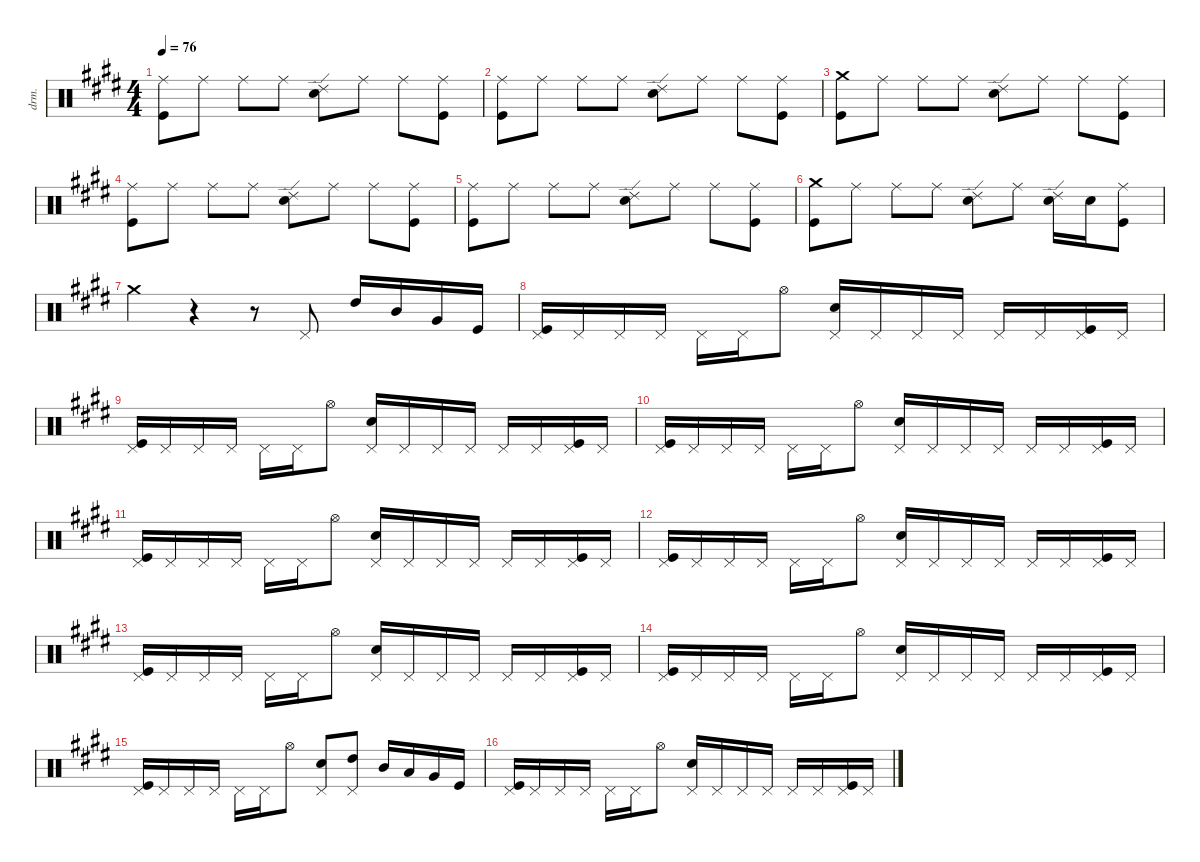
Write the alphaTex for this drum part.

\defaultSystemsLayout 4
\hideDynamics
\bracketExtendMode nobrackets
\otherSystemsTrackNameOrientation horizontal
\track ("Drums" "drm.") {instrument percussion}
\staff {score}
\articulation defaults
\ts (4 4)
\tempo 76
\clef neutral
\ks c#minor
("Ride (middle)"{acc forcenatural} "Kick (hit)"{acc forcenatural}).8{dy f} "Ride (middle)"{acc forcenatural}.8 "Ride (middle)"{acc forcenatural}.8 "Ride (middle)"{acc forcenatural}.8 ("Snare (hit) 2"{acc forcenatural} "Ride (edge) 2"{acc forcenatural}).8 "Ride (middle)"{acc forcenatural}.8 "Ride (middle)"{acc forcenatural}.8 ("Kick (hit)"{acc forcenatural} "Ride (middle)"{acc forcenatural}).8 |
("Ride (middle)"{acc forcenatural} "Kick (hit)"{acc forcenatural}).8 "Ride (middle)"{acc forcenatural}.8 "Ride (middle)"{acc forcenatural}.8 "Ride (middle)"{acc forcenatural}.8 ("Snare (hit) 2"{acc forcenatural} "Ride (edge) 2"{acc forcenatural}).8 "Ride (middle)"{acc forcenatural}.8 "Ride (middle)"{acc forcenatural}.8 ("Kick (hit)"{acc forcenatural} "Ride (middle)"{acc forcenatural}).8 |
("Crash medium (hit)"{acc forcenatural} "Kick (hit)"{acc forcenatural}).8 "Ride (middle)"{acc forcenatural}.8 "Ride (middle)"{acc forcenatural}.8 "Ride (middle)"{acc forcenatural}.8 ("Snare (hit) 2"{acc forcenatural} "Ride (edge) 2"{acc forcenatural}).8 "Ride (middle)"{acc forcenatural}.8 "Ride (middle)"{acc forcenatural}.8 ("Kick (hit)"{acc forcenatural} "Ride (middle)"{acc forcenatural}).8 |
("Ride (middle)"{acc forcenatural} "Kick (hit)"{acc forcenatural}).8 "Ride (middle)"{acc forcenatural}.8 "Ride (middle)"{acc forcenatural}.8 "Ride (middle)"{acc forcenatural}.8 ("Snare (hit) 2"{acc forcenatural} "Ride (edge) 2"{acc forcenatural}).8 "Ride (middle)"{acc forcenatural}.8 "Ride (middle)"{acc forcenatural}.8 ("Kick (hit)"{acc forcenatural} "Ride (middle)"{acc forcenatural}).8 |
("Ride (middle)"{acc forcenatural} "Kick (hit)"{acc forcenatural}).8 "Ride (middle)"{acc forcenatural}.8 "Ride (middle)"{acc forcenatural}.8 "Ride (middle)"{acc forcenatural}.8 ("Snare (hit) 2"{acc forcenatural} "Ride (edge) 2"{acc forcenatural}).8 "Ride (middle)"{acc forcenatural}.8 "Ride (middle)"{acc forcenatural}.8 ("Kick (hit)"{acc forcenatural} "Ride (middle)"{acc forcenatural}).8 |
("Crash medium (hit)"{acc forcenatural} "Kick (hit)"{acc forcenatural}).8 "Ride (middle)"{acc forcenatural}.8 "Ride (middle)"{acc forcenatural}.8 "Ride (middle)"{acc forcenatural}.8 ("Snare (hit) 2"{acc forcenatural} "Ride (edge) 2"{acc forcenatural}).8 "Ride (middle)"{acc forcenatural}.8 ("Snare (hit) 2"{acc forcenatural} "Ride (edge) 2"{acc forcenatural}).16 "Snare (hit) 2"{acc forcenatural}.16 ("Kick (hit)"{acc forcenatural} "Ride (middle)"{acc forcenatural}).8 |
"Crash medium (hit)"{acc forcenatural}.4 r.4 r.8 "Pedal Hi-Hat (hit)"{acc forcenatural}.8 "High Tom (hit)"{acc forcenatural}.16 "Mid Tom (hit)"{acc forcenatural}.16 "Very Low Tom (hit)"{acc forcenatural}.16 "Kick (hit)"{acc forcenatural}.16 |
("Pedal Hi-Hat (hit)"{acc forcenatural} "Kick (hit)"{acc forcenatural}).16 "Pedal Hi-Hat (hit)"{acc forcenatural}.16 "Pedal Hi-Hat (hit)"{acc forcenatural}.16 "Pedal Hi-Hat (hit)"{acc forcenatural}.16 "Pedal Hi-Hat (hit)"{acc forcenatural}.16 "Pedal Hi-Hat (hit)"{acc forcenatural}.16 "Hi-Hat (open)"{acc forcenatural}.8 ("Snare (hit) 2"{acc forcenatural} "Pedal Hi-Hat (hit)"{acc forcenatural}).16 "Pedal Hi-Hat (hit)"{acc forcenatural}.16 "Pedal Hi-Hat (hit)"{acc forcenatural}.16 "Pedal Hi-Hat (hit)"{acc forcenatural}.16 "Pedal Hi-Hat (hit)"{acc forcenatural}.16 "Pedal Hi-Hat (hit)"{acc forcenatural}.16 ("Pedal Hi-Hat (hit)"{acc forcenatural} "Kick (hit)"{acc forcenatural}).16 "Pedal Hi-Hat (hit)"{acc forcenatural}.16 |
("Pedal Hi-Hat (hit)"{acc forcenatural} "Kick (hit)"{acc forcenatural}).16 "Pedal Hi-Hat (hit)"{acc forcenatural}.16 "Pedal Hi-Hat (hit)"{acc forcenatural}.16 "Pedal Hi-Hat (hit)"{acc forcenatural}.16 "Pedal Hi-Hat (hit)"{acc forcenatural}.16 "Pedal Hi-Hat (hit)"{acc forcenatural}.16 "Hi-Hat (open)"{acc forcenatural}.8 ("Snare (hit) 2"{acc forcenatural} "Pedal Hi-Hat (hit)"{acc forcenatural}).16 "Pedal Hi-Hat (hit)"{acc forcenatural}.16 "Pedal Hi-Hat (hit)"{acc forcenatural}.16 "Pedal Hi-Hat (hit)"{acc forcenatural}.16 "Pedal Hi-Hat (hit)"{acc forcenatural}.16 "Pedal Hi-Hat (hit)"{acc forcenatural}.16 ("Pedal Hi-Hat (hit)"{acc forcenatural} "Kick (hit)"{acc forcenatural}).16 "Pedal Hi-Hat (hit)"{acc forcenatural}.16 |
("Pedal Hi-Hat (hit)"{acc forcenatural} "Kick (hit)"{acc forcenatural}).16 "Pedal Hi-Hat (hit)"{acc forcenatural}.16 "Pedal Hi-Hat (hit)"{acc forcenatural}.16 "Pedal Hi-Hat (hit)"{acc forcenatural}.16 "Pedal Hi-Hat (hit)"{acc forcenatural}.16 "Pedal Hi-Hat (hit)"{acc forcenatural}.16 "Hi-Hat (open)"{acc forcenatural}.8 ("Snare (hit) 2"{acc forcenatural} "Pedal Hi-Hat (hit)"{acc forcenatural}).16 "Pedal Hi-Hat (hit)"{acc forcenatural}.16 "Pedal Hi-Hat (hit)"{acc forcenatural}.16 "Pedal Hi-Hat (hit)"{acc forcenatural}.16 "Pedal Hi-Hat (hit)"{acc forcenatural}.16 "Pedal Hi-Hat (hit)"{acc forcenatural}.16 ("Pedal Hi-Hat (hit)"{acc forcenatural} "Kick (hit)"{acc forcenatural}).16 "Pedal Hi-Hat (hit)"{acc forcenatural}.16 |
("Pedal Hi-Hat (hit)"{acc forcenatural} "Kick (hit)"{acc forcenatural}).16 "Pedal Hi-Hat (hit)"{acc forcenatural}.16 "Pedal Hi-Hat (hit)"{acc forcenatural}.16 "Pedal Hi-Hat (hit)"{acc forcenatural}.16 "Pedal Hi-Hat (hit)"{acc forcenatural}.16 "Pedal Hi-Hat (hit)"{acc forcenatural}.16 "Hi-Hat (open)"{acc forcenatural}.8 ("Snare (hit) 2"{acc forcenatural} "Pedal Hi-Hat (hit)"{acc forcenatural}).16 "Pedal Hi-Hat (hit)"{acc forcenatural}.16 "Pedal Hi-Hat (hit)"{acc forcenatural}.16 "Pedal Hi-Hat (hit)"{acc forcenatural}.16 "Pedal Hi-Hat (hit)"{acc forcenatural}.16 "Pedal Hi-Hat (hit)"{acc forcenatural}.16 ("Pedal Hi-Hat (hit)"{acc forcenatural} "Kick (hit)"{acc forcenatural}).16 "Pedal Hi-Hat (hit)"{acc forcenatural}.16 |
("Pedal Hi-Hat (hit)"{acc forcenatural} "Kick (hit)"{acc forcenatural}).16 "Pedal Hi-Hat (hit)"{acc forcenatural}.16 "Pedal Hi-Hat (hit)"{acc forcenatural}.16 "Pedal Hi-Hat (hit)"{acc forcenatural}.16 "Pedal Hi-Hat (hit)"{acc forcenatural}.16 "Pedal Hi-Hat (hit)"{acc forcenatural}.16 "Hi-Hat (open)"{acc forcenatural}.8 ("Snare (hit) 2"{acc forcenatural} "Pedal Hi-Hat (hit)"{acc forcenatural}).16 "Pedal Hi-Hat (hit)"{acc forcenatural}.16 "Pedal Hi-Hat (hit)"{acc forcenatural}.16 "Pedal Hi-Hat (hit)"{acc forcenatural}.16 "Pedal Hi-Hat (hit)"{acc forcenatural}.16 "Pedal Hi-Hat (hit)"{acc forcenatural}.16 ("Pedal Hi-Hat (hit)"{acc forcenatural} "Kick (hit)"{acc forcenatural}).16 "Pedal Hi-Hat (hit)"{acc forcenatural}.16 |
("Pedal Hi-Hat (hit)"{acc forcenatural} "Kick (hit)"{acc forcenatural}).16 "Pedal Hi-Hat (hit)"{acc forcenatural}.16 "Pedal Hi-Hat (hit)"{acc forcenatural}.16 "Pedal Hi-Hat (hit)"{acc forcenatural}.16 "Pedal Hi-Hat (hit)"{acc forcenatural}.16 "Pedal Hi-Hat (hit)"{acc forcenatural}.16 "Hi-Hat (open)"{acc forcenatural}.8 ("Snare (hit) 2"{acc forcenatural} "Pedal Hi-Hat (hit)"{acc forcenatural}).16 "Pedal Hi-Hat (hit)"{acc forcenatural}.16 "Pedal Hi-Hat (hit)"{acc forcenatural}.16 "Pedal Hi-Hat (hit)"{acc forcenatural}.16 "Pedal Hi-Hat (hit)"{acc forcenatural}.16 "Pedal Hi-Hat (hit)"{acc forcenatural}.16 ("Pedal Hi-Hat (hit)"{acc forcenatural} "Kick (hit)"{acc forcenatural}).16 "Pedal Hi-Hat (hit)"{acc forcenatural}.16 |
("Pedal Hi-Hat (hit)"{acc forcenatural} "Kick (hit)"{acc forcenatural}).16 "Pedal Hi-Hat (hit)"{acc forcenatural}.16 "Pedal Hi-Hat (hit)"{acc forcenatural}.16 "Pedal Hi-Hat (hit)"{acc forcenatural}.16 "Pedal Hi-Hat (hit)"{acc forcenatural}.16 "Pedal Hi-Hat (hit)"{acc forcenatural}.16 "Hi-Hat (open)"{acc forcenatural}.8 ("Snare (hit) 2"{acc forcenatural} "Pedal Hi-Hat (hit)"{acc forcenatural}).16 "Pedal Hi-Hat (hit)"{acc forcenatural}.16 "Pedal Hi-Hat (hit)"{acc forcenatural}.16 "Pedal Hi-Hat (hit)"{acc forcenatural}.16 "Pedal Hi-Hat (hit)"{acc forcenatural}.16 "Pedal Hi-Hat (hit)"{acc forcenatural}.16 ("Pedal Hi-Hat (hit)"{acc forcenatural} "Kick (hit)"{acc forcenatural}).16 "Pedal Hi-Hat (hit)"{acc forcenatural}.16 |
("Pedal Hi-Hat (hit)"{acc forcenatural} "Kick (hit)"{acc forcenatural}).16 "Pedal Hi-Hat (hit)"{acc forcenatural}.16 "Pedal Hi-Hat (hit)"{acc forcenatural}.16 "Pedal Hi-Hat (hit)"{acc forcenatural}.16 "Pedal Hi-Hat (hit)"{acc forcenatural}.16 "Pedal Hi-Hat (hit)"{acc forcenatural}.16 "Hi-Hat (open)"{acc forcenatural}.8 ("Snare (hit) 2"{acc forcenatural} "Pedal Hi-Hat (hit)"{acc forcenatural}).8 ("High Tom (hit)"{acc forcenatural} "Pedal Hi-Hat (hit)"{acc forcenatural}).8 "Mid Tom (hit)"{acc forcenatural}.16 "Low Tom (hit)"{acc forcenatural}.16 "Very Low Tom (hit)"{acc forcenatural}.16 "Kick (hit)"{acc forcenatural}.16 |
("Pedal Hi-Hat (hit)"{acc forcenatural} "Kick (hit)"{acc forcenatural}).16 "Pedal Hi-Hat (hit)"{acc forcenatural}.16 "Pedal Hi-Hat (hit)"{acc forcenatural}.16 "Pedal Hi-Hat (hit)"{acc forcenatural}.16 "Pedal Hi-Hat (hit)"{acc forcenatural}.16 "Pedal Hi-Hat (hit)"{acc forcenatural}.16 "Hi-Hat (open)"{acc forcenatural}.8 ("Snare (hit) 2"{acc forcenatural} "Pedal Hi-Hat (hit)"{acc forcenatural}).16 "Pedal Hi-Hat (hit)"{acc forcenatural}.16 "Pedal Hi-Hat (hit)"{acc forcenatural}.16 "Pedal Hi-Hat (hit)"{acc forcenatural}.16 "Pedal Hi-Hat (hit)"{acc forcenatural}.16 "Pedal Hi-Hat (hit)"{acc forcenatural}.16 ("Pedal Hi-Hat (hit)"{acc forcenatural} "Kick (hit)"{acc forcenatural}).16 "Pedal Hi-Hat (hit)"{acc forcenatural}.16
